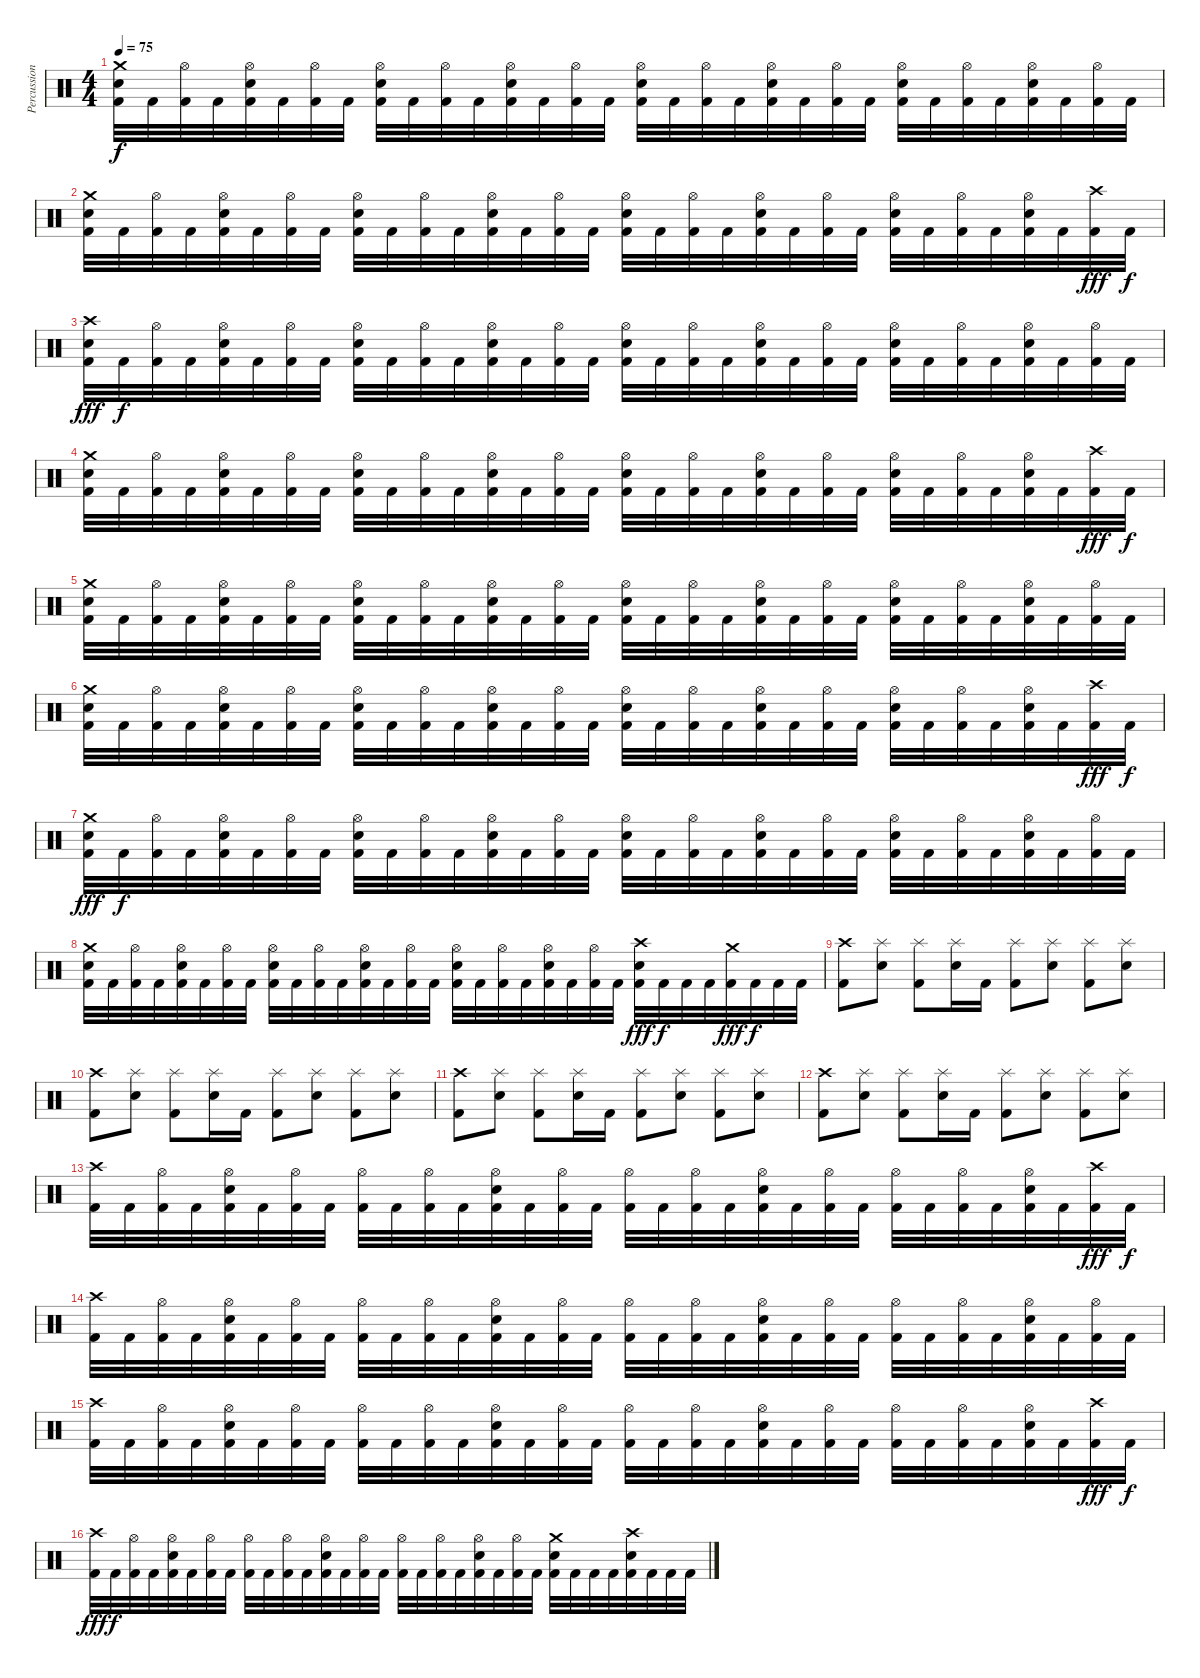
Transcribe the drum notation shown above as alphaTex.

\track ("Percussion" "Percussion") {instrument percussion}
\staff {score}
\articulation defaults
\ts (4 4)
\tempo 75
\clef neutral
\ks c
("Crash medium (hit)" "Electric Snare (hit)" "Kick (hit) 2").32{dy f} "Kick (hit) 2".32 ("Hi-Hat (open)" "Kick (hit) 2").32 "Kick (hit) 2".32 ("Hi-Hat (open)" "Electric Snare (hit)" "Kick (hit) 2").32 "Kick (hit) 2".32 ("Hi-Hat (open)" "Kick (hit) 2").32 "Kick (hit) 2".32 ("Hi-Hat (open)" "Electric Snare (hit)" "Kick (hit) 2").32 "Kick (hit) 2".32 ("Hi-Hat (open)" "Kick (hit) 2").32 "Kick (hit) 2".32 ("Hi-Hat (open)" "Electric Snare (hit)" "Kick (hit) 2").32 "Kick (hit) 2".32 ("Hi-Hat (open)" "Kick (hit) 2").32 "Kick (hit) 2".32 ("Hi-Hat (open)" "Electric Snare (hit)" "Kick (hit) 2").32 "Kick (hit) 2".32 ("Hi-Hat (open)" "Kick (hit) 2").32 "Kick (hit) 2".32 ("Hi-Hat (open)" "Electric Snare (hit)" "Kick (hit) 2").32 "Kick (hit) 2".32 ("Hi-Hat (open)" "Kick (hit) 2").32 "Kick (hit) 2".32 ("Hi-Hat (open)" "Electric Snare (hit)" "Kick (hit) 2").32 "Kick (hit) 2".32 ("Hi-Hat (open)" "Kick (hit) 2").32 "Kick (hit) 2".32 ("Hi-Hat (open)" "Electric Snare (hit)" "Kick (hit) 2").32 "Kick (hit) 2".32 ("Hi-Hat (open)" "Kick (hit) 2").32 "Kick (hit) 2".32 |
("Crash medium (hit)" "Electric Snare (hit)" "Kick (hit) 2").32 "Kick (hit) 2".32 ("Hi-Hat (open)" "Kick (hit) 2").32 "Kick (hit) 2".32 ("Hi-Hat (open)" "Electric Snare (hit)" "Kick (hit) 2").32 "Kick (hit) 2".32 ("Hi-Hat (open)" "Kick (hit) 2").32 "Kick (hit) 2".32 ("Hi-Hat (open)" "Electric Snare (hit)" "Kick (hit) 2").32 "Kick (hit) 2".32 ("Hi-Hat (open)" "Kick (hit) 2").32 "Kick (hit) 2".32 ("Hi-Hat (open)" "Electric Snare (hit)" "Kick (hit) 2").32 "Kick (hit) 2".32 ("Hi-Hat (open)" "Kick (hit) 2").32 "Kick (hit) 2".32 ("Hi-Hat (open)" "Electric Snare (hit)" "Kick (hit) 2").32 "Kick (hit) 2".32 ("Hi-Hat (open)" "Kick (hit) 2").32 "Kick (hit) 2".32 ("Hi-Hat (open)" "Electric Snare (hit)" "Kick (hit) 2").32 "Kick (hit) 2".32 ("Hi-Hat (open)" "Kick (hit) 2").32 "Kick (hit) 2".32 ("Hi-Hat (open)" "Electric Snare (hit)" "Kick (hit) 2").32 "Kick (hit) 2".32 ("Hi-Hat (open)" "Kick (hit) 2").32 "Kick (hit) 2".32 ("Hi-Hat (open)" "Electric Snare (hit)" "Kick (hit) 2").32 "Kick (hit) 2".32 ("Crash high (hit)" "Kick (hit) 2").32{dy fff} "Kick (hit) 2".32{dy f} |
("Crash high (hit)" "Electric Snare (hit)" "Kick (hit) 2").32{dy fff} "Kick (hit) 2".32{dy f} ("Hi-Hat (open)" "Kick (hit) 2").32 "Kick (hit) 2".32 ("Hi-Hat (open)" "Electric Snare (hit)" "Kick (hit) 2").32 "Kick (hit) 2".32 ("Hi-Hat (open)" "Kick (hit) 2").32 "Kick (hit) 2".32 ("Hi-Hat (open)" "Electric Snare (hit)" "Kick (hit) 2").32 "Kick (hit) 2".32 ("Hi-Hat (open)" "Kick (hit) 2").32 "Kick (hit) 2".32 ("Hi-Hat (open)" "Electric Snare (hit)" "Kick (hit) 2").32 "Kick (hit) 2".32 ("Hi-Hat (open)" "Kick (hit) 2").32 "Kick (hit) 2".32 ("Hi-Hat (open)" "Electric Snare (hit)" "Kick (hit) 2").32 "Kick (hit) 2".32 ("Hi-Hat (open)" "Kick (hit) 2").32 "Kick (hit) 2".32 ("Hi-Hat (open)" "Electric Snare (hit)" "Kick (hit) 2").32 "Kick (hit) 2".32 ("Hi-Hat (open)" "Kick (hit) 2").32 "Kick (hit) 2".32 ("Hi-Hat (open)" "Electric Snare (hit)" "Kick (hit) 2").32 "Kick (hit) 2".32 ("Hi-Hat (open)" "Kick (hit) 2").32 "Kick (hit) 2".32 ("Hi-Hat (open)" "Electric Snare (hit)" "Kick (hit) 2").32 "Kick (hit) 2".32 ("Hi-Hat (open)" "Kick (hit) 2").32 "Kick (hit) 2".32 |
("Crash medium (hit)" "Electric Snare (hit)" "Kick (hit) 2").32 "Kick (hit) 2".32 ("Hi-Hat (open)" "Kick (hit) 2").32 "Kick (hit) 2".32 ("Hi-Hat (open)" "Electric Snare (hit)" "Kick (hit) 2").32 "Kick (hit) 2".32 ("Hi-Hat (open)" "Kick (hit) 2").32 "Kick (hit) 2".32 ("Hi-Hat (open)" "Electric Snare (hit)" "Kick (hit) 2").32 "Kick (hit) 2".32 ("Hi-Hat (open)" "Kick (hit) 2").32 "Kick (hit) 2".32 ("Hi-Hat (open)" "Electric Snare (hit)" "Kick (hit) 2").32 "Kick (hit) 2".32 ("Hi-Hat (open)" "Kick (hit) 2").32 "Kick (hit) 2".32 ("Hi-Hat (open)" "Electric Snare (hit)" "Kick (hit) 2").32 "Kick (hit) 2".32 ("Hi-Hat (open)" "Kick (hit) 2").32 "Kick (hit) 2".32 ("Hi-Hat (open)" "Electric Snare (hit)" "Kick (hit) 2").32 "Kick (hit) 2".32 ("Hi-Hat (open)" "Kick (hit) 2").32 "Kick (hit) 2".32 ("Hi-Hat (open)" "Electric Snare (hit)" "Kick (hit) 2").32 "Kick (hit) 2".32 ("Hi-Hat (open)" "Kick (hit) 2").32 "Kick (hit) 2".32 ("Hi-Hat (open)" "Electric Snare (hit)" "Kick (hit) 2").32 "Kick (hit) 2".32 ("Crash high (hit)" "Kick (hit) 2").32{dy fff} "Kick (hit) 2".32{dy f} |
("Crash medium (hit)" "Electric Snare (hit)" "Kick (hit) 2").32 "Kick (hit) 2".32 ("Hi-Hat (open)" "Kick (hit) 2").32 "Kick (hit) 2".32 ("Hi-Hat (open)" "Electric Snare (hit)" "Kick (hit) 2").32 "Kick (hit) 2".32 ("Hi-Hat (open)" "Kick (hit) 2").32 "Kick (hit) 2".32 ("Hi-Hat (open)" "Electric Snare (hit)" "Kick (hit) 2").32 "Kick (hit) 2".32 ("Hi-Hat (open)" "Kick (hit) 2").32 "Kick (hit) 2".32 ("Hi-Hat (open)" "Electric Snare (hit)" "Kick (hit) 2").32 "Kick (hit) 2".32 ("Hi-Hat (open)" "Kick (hit) 2").32 "Kick (hit) 2".32 ("Hi-Hat (open)" "Electric Snare (hit)" "Kick (hit) 2").32 "Kick (hit) 2".32 ("Hi-Hat (open)" "Kick (hit) 2").32 "Kick (hit) 2".32 ("Hi-Hat (open)" "Electric Snare (hit)" "Kick (hit) 2").32 "Kick (hit) 2".32 ("Hi-Hat (open)" "Kick (hit) 2").32 "Kick (hit) 2".32 ("Hi-Hat (open)" "Electric Snare (hit)" "Kick (hit) 2").32 "Kick (hit) 2".32 ("Hi-Hat (open)" "Kick (hit) 2").32 "Kick (hit) 2".32 ("Hi-Hat (open)" "Electric Snare (hit)" "Kick (hit) 2").32 "Kick (hit) 2".32 ("Hi-Hat (open)" "Kick (hit) 2").32 "Kick (hit) 2".32 |
("Crash medium (hit)" "Electric Snare (hit)" "Kick (hit) 2").32 "Kick (hit) 2".32 ("Hi-Hat (open)" "Kick (hit) 2").32 "Kick (hit) 2".32 ("Hi-Hat (open)" "Electric Snare (hit)" "Kick (hit) 2").32 "Kick (hit) 2".32 ("Hi-Hat (open)" "Kick (hit) 2").32 "Kick (hit) 2".32 ("Hi-Hat (open)" "Electric Snare (hit)" "Kick (hit) 2").32 "Kick (hit) 2".32 ("Hi-Hat (open)" "Kick (hit) 2").32 "Kick (hit) 2".32 ("Hi-Hat (open)" "Electric Snare (hit)" "Kick (hit) 2").32 "Kick (hit) 2".32 ("Hi-Hat (open)" "Kick (hit) 2").32 "Kick (hit) 2".32 ("Hi-Hat (open)" "Electric Snare (hit)" "Kick (hit) 2").32 "Kick (hit) 2".32 ("Hi-Hat (open)" "Kick (hit) 2").32 "Kick (hit) 2".32 ("Hi-Hat (open)" "Electric Snare (hit)" "Kick (hit) 2").32 "Kick (hit) 2".32 ("Hi-Hat (open)" "Kick (hit) 2").32 "Kick (hit) 2".32 ("Hi-Hat (open)" "Electric Snare (hit)" "Kick (hit) 2").32 "Kick (hit) 2".32 ("Hi-Hat (open)" "Kick (hit) 2").32 "Kick (hit) 2".32 ("Hi-Hat (open)" "Electric Snare (hit)" "Kick (hit) 2").32 "Kick (hit) 2".32 ("Crash high (hit)" "Kick (hit) 2").32{dy fff} "Kick (hit) 2".32{dy f} |
("Crash medium (hit)" "Electric Snare (hit)" "Kick (hit) 2").32{dy fff} "Kick (hit) 2".32{dy f} ("Hi-Hat (open)" "Kick (hit) 2").32 "Kick (hit) 2".32 ("Hi-Hat (open)" "Electric Snare (hit)" "Kick (hit) 2").32 "Kick (hit) 2".32 ("Hi-Hat (open)" "Kick (hit) 2").32 "Kick (hit) 2".32 ("Hi-Hat (open)" "Electric Snare (hit)" "Kick (hit) 2").32 "Kick (hit) 2".32 ("Hi-Hat (open)" "Kick (hit) 2").32 "Kick (hit) 2".32 ("Hi-Hat (open)" "Electric Snare (hit)" "Kick (hit) 2").32 "Kick (hit) 2".32 ("Hi-Hat (open)" "Kick (hit) 2").32 "Kick (hit) 2".32 ("Hi-Hat (open)" "Electric Snare (hit)" "Kick (hit) 2").32 "Kick (hit) 2".32 ("Hi-Hat (open)" "Kick (hit) 2").32 "Kick (hit) 2".32 ("Hi-Hat (open)" "Electric Snare (hit)" "Kick (hit) 2").32 "Kick (hit) 2".32 ("Hi-Hat (open)" "Kick (hit) 2").32 "Kick (hit) 2".32 ("Hi-Hat (open)" "Electric Snare (hit)" "Kick (hit) 2").32 "Kick (hit) 2".32 ("Hi-Hat (open)" "Kick (hit) 2").32 "Kick (hit) 2".32 ("Hi-Hat (open)" "Electric Snare (hit)" "Kick (hit) 2").32 "Kick (hit) 2".32 ("Hi-Hat (open)" "Kick (hit) 2").32 "Kick (hit) 2".32 |
("Crash medium (hit)" "Electric Snare (hit)" "Kick (hit) 2").32 "Kick (hit) 2".32 ("Hi-Hat (open)" "Kick (hit) 2").32 "Kick (hit) 2".32 ("Hi-Hat (open)" "Electric Snare (hit)" "Kick (hit) 2").32 "Kick (hit) 2".32 ("Hi-Hat (open)" "Kick (hit) 2").32 "Kick (hit) 2".32 ("Hi-Hat (open)" "Electric Snare (hit)" "Kick (hit) 2").32 "Kick (hit) 2".32 ("Hi-Hat (open)" "Kick (hit) 2").32 "Kick (hit) 2".32 ("Hi-Hat (open)" "Electric Snare (hit)" "Kick (hit) 2").32 "Kick (hit) 2".32 ("Hi-Hat (open)" "Kick (hit) 2").32 "Kick (hit) 2".32 ("Hi-Hat (open)" "Electric Snare (hit)" "Kick (hit) 2").32 "Kick (hit) 2".32 ("Hi-Hat (open)" "Kick (hit) 2").32 "Kick (hit) 2".32 ("Hi-Hat (open)" "Electric Snare (hit)" "Kick (hit) 2").32 "Kick (hit) 2".32 ("Hi-Hat (open)" "Kick (hit) 2").32 "Kick (hit) 2".32 ("Crash high (hit)" "Electric Snare (hit)" "Kick (hit) 2").32{dy fff} "Kick (hit) 2".32{dy f} "Kick (hit) 2".32 "Kick (hit) 2".32 ("Crash medium (hit)" "Kick (hit) 2").32{dy fff} "Kick (hit) 2".32{dy f} "Kick (hit) 2".32 "Kick (hit) 2".32 |
("Crash high (hit)" "Kick (hit) 2").8 ("Splash (hit)" "Electric Snare (hit)").8 ("Splash (hit)" "Kick (hit) 2").8 ("Splash (hit)" "Electric Snare (hit)").16 "Kick (hit) 2".16 ("Splash (hit)" "Kick (hit) 2").8 ("Splash (hit)" "Electric Snare (hit)").8 ("Splash (hit)" "Kick (hit) 2").8 ("Splash (hit)" "Electric Snare (hit)").8 |
("Crash high (hit)" "Kick (hit) 2").8 ("Splash (hit)" "Electric Snare (hit)").8 ("Splash (hit)" "Kick (hit) 2").8 ("Splash (hit)" "Electric Snare (hit)").16 "Kick (hit) 2".16 ("Splash (hit)" "Kick (hit) 2").8 ("Splash (hit)" "Electric Snare (hit)").8 ("Splash (hit)" "Kick (hit) 2").8 ("Splash (hit)" "Electric Snare (hit)").8 |
("Crash high (hit)" "Kick (hit) 2").8 ("Splash (hit)" "Electric Snare (hit)").8 ("Splash (hit)" "Kick (hit) 2").8 ("Splash (hit)" "Electric Snare (hit)").16 "Kick (hit) 2".16 ("Splash (hit)" "Kick (hit) 2").8 ("Splash (hit)" "Electric Snare (hit)").8 ("Splash (hit)" "Kick (hit) 2").8 ("Splash (hit)" "Electric Snare (hit)").8 |
("Crash high (hit)" "Kick (hit) 2").8 ("Splash (hit)" "Electric Snare (hit)").8 ("Splash (hit)" "Kick (hit) 2").8 ("Splash (hit)" "Electric Snare (hit)").16 "Kick (hit) 2".16 ("Splash (hit)" "Kick (hit) 2").8 ("Splash (hit)" "Electric Snare (hit)").8 ("Splash (hit)" "Kick (hit) 2").8 ("Splash (hit)" "Electric Snare (hit)").8 |
("Crash high (hit)" "Kick (hit) 2").32 "Kick (hit) 2".32 ("Hi-Hat (open)" "Kick (hit) 2").32 "Kick (hit) 2".32 ("Hi-Hat (open)" "Electric Snare (hit)" "Kick (hit) 2").32 "Kick (hit) 2".32 ("Hi-Hat (open)" "Kick (hit) 2").32 "Kick (hit) 2".32 ("Hi-Hat (open)" "Kick (hit) 2").32 "Kick (hit) 2".32 ("Hi-Hat (open)" "Kick (hit) 2").32 "Kick (hit) 2".32 ("Hi-Hat (open)" "Electric Snare (hit)" "Kick (hit) 2").32 "Kick (hit) 2".32 ("Hi-Hat (open)" "Kick (hit) 2").32 "Kick (hit) 2".32 ("Hi-Hat (open)" "Kick (hit) 2").32 "Kick (hit) 2".32 ("Hi-Hat (open)" "Kick (hit) 2").32 "Kick (hit) 2".32 ("Hi-Hat (open)" "Electric Snare (hit)" "Kick (hit) 2").32 "Kick (hit) 2".32 ("Hi-Hat (open)" "Kick (hit) 2").32 "Kick (hit) 2".32 ("Hi-Hat (open)" "Kick (hit) 2").32 "Kick (hit) 2".32 ("Hi-Hat (open)" "Kick (hit) 2").32 "Kick (hit) 2".32 ("Hi-Hat (open)" "Electric Snare (hit)" "Kick (hit) 2").32 "Kick (hit) 2".32 ("Crash high (hit)" "Kick (hit) 2").32{dy fff} "Kick (hit) 2".32{dy f} |
("Crash high (hit)" "Kick (hit) 2").32 "Kick (hit) 2".32 ("Hi-Hat (open)" "Kick (hit) 2").32 "Kick (hit) 2".32 ("Hi-Hat (open)" "Electric Snare (hit)" "Kick (hit) 2").32 "Kick (hit) 2".32 ("Hi-Hat (open)" "Kick (hit) 2").32 "Kick (hit) 2".32 ("Hi-Hat (open)" "Kick (hit) 2").32 "Kick (hit) 2".32 ("Hi-Hat (open)" "Kick (hit) 2").32 "Kick (hit) 2".32 ("Hi-Hat (open)" "Electric Snare (hit)" "Kick (hit) 2").32 "Kick (hit) 2".32 ("Hi-Hat (open)" "Kick (hit) 2").32 "Kick (hit) 2".32 ("Hi-Hat (open)" "Kick (hit) 2").32 "Kick (hit) 2".32 ("Hi-Hat (open)" "Kick (hit) 2").32 "Kick (hit) 2".32 ("Hi-Hat (open)" "Electric Snare (hit)" "Kick (hit) 2").32 "Kick (hit) 2".32 ("Hi-Hat (open)" "Kick (hit) 2").32 "Kick (hit) 2".32 ("Hi-Hat (open)" "Kick (hit) 2").32 "Kick (hit) 2".32 ("Hi-Hat (open)" "Kick (hit) 2").32 "Kick (hit) 2".32 ("Hi-Hat (open)" "Electric Snare (hit)" "Kick (hit) 2").32 "Kick (hit) 2".32 ("Hi-Hat (open)" "Kick (hit) 2").32 "Kick (hit) 2".32 |
("Crash high (hit)" "Kick (hit) 2").32 "Kick (hit) 2".32 ("Hi-Hat (open)" "Kick (hit) 2").32 "Kick (hit) 2".32 ("Hi-Hat (open)" "Electric Snare (hit)" "Kick (hit) 2").32 "Kick (hit) 2".32 ("Hi-Hat (open)" "Kick (hit) 2").32 "Kick (hit) 2".32 ("Hi-Hat (open)" "Kick (hit) 2").32 "Kick (hit) 2".32 ("Hi-Hat (open)" "Kick (hit) 2").32 "Kick (hit) 2".32 ("Hi-Hat (open)" "Electric Snare (hit)" "Kick (hit) 2").32 "Kick (hit) 2".32 ("Hi-Hat (open)" "Kick (hit) 2").32 "Kick (hit) 2".32 ("Hi-Hat (open)" "Kick (hit) 2").32 "Kick (hit) 2".32 ("Hi-Hat (open)" "Kick (hit) 2").32 "Kick (hit) 2".32 ("Hi-Hat (open)" "Electric Snare (hit)" "Kick (hit) 2").32 "Kick (hit) 2".32 ("Hi-Hat (open)" "Kick (hit) 2").32 "Kick (hit) 2".32 ("Hi-Hat (open)" "Kick (hit) 2").32 "Kick (hit) 2".32 ("Hi-Hat (open)" "Kick (hit) 2").32 "Kick (hit) 2".32 ("Hi-Hat (open)" "Electric Snare (hit)" "Kick (hit) 2").32 "Kick (hit) 2".32 ("Crash high (hit)" "Kick (hit) 2").32{dy fff} "Kick (hit) 2".32{dy f} |
("Crash high (hit)" "Kick (hit) 2").32{dy fff} "Kick (hit) 2".32{dy f} ("Hi-Hat (open)" "Kick (hit) 2").32 "Kick (hit) 2".32 ("Hi-Hat (open)" "Electric Snare (hit)" "Kick (hit) 2").32 "Kick (hit) 2".32 ("Hi-Hat (open)" "Kick (hit) 2").32 "Kick (hit) 2".32 ("Hi-Hat (open)" "Kick (hit) 2").32 "Kick (hit) 2".32 ("Hi-Hat (open)" "Kick (hit) 2").32 "Kick (hit) 2".32 ("Hi-Hat (open)" "Electric Snare (hit)" "Kick (hit) 2").32 "Kick (hit) 2".32 ("Hi-Hat (open)" "Kick (hit) 2").32 "Kick (hit) 2".32 ("Hi-Hat (open)" "Kick (hit) 2").32 "Kick (hit) 2".32 ("Hi-Hat (open)" "Kick (hit) 2").32 "Kick (hit) 2".32 ("Hi-Hat (open)" "Electric Snare (hit)" "Kick (hit) 2").32 "Kick (hit) 2".32 ("Hi-Hat (open)" "Kick (hit) 2").32 "Kick (hit) 2".32 ("Crash medium (hit)" "Electric Snare (hit)" "Kick (hit) 2").32 "Kick (hit) 2".32 "Kick (hit) 2".32 "Kick (hit) 2".32 ("Crash high (hit)" "Electric Snare (hit)" "Kick (hit) 2").32 "Kick (hit) 2".32 "Kick (hit) 2".32 "Kick (hit) 2".32
